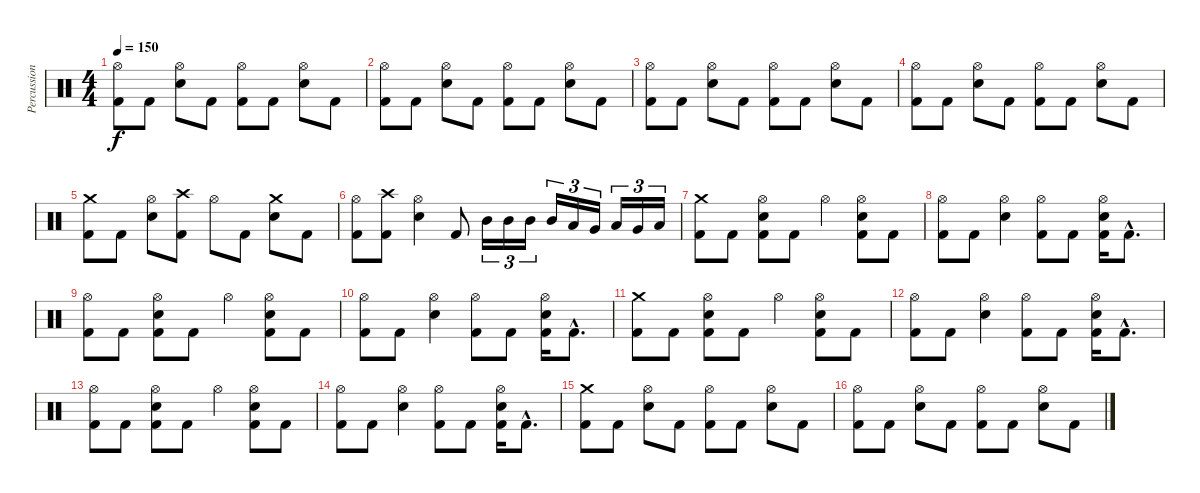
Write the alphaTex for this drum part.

\track ("Percussion" "Percussion") {instrument percussion}
\staff {score}
\articulation defaults
\ts (4 4)
\tempo 150
\clef neutral
\ks aminor
("Hi-Hat (open)" "Kick (hit) 2").8{dy f} "Kick (hit) 2".8 ("Hi-Hat (open)" "Electric Snare (hit)").8 "Kick (hit) 2".8 ("Hi-Hat (open)" "Kick (hit) 2").8 "Kick (hit) 2".8 ("Hi-Hat (open)" "Electric Snare (hit)").8 "Kick (hit) 2".8 |
("Hi-Hat (open)" "Kick (hit) 2").8 "Kick (hit) 2".8 ("Hi-Hat (open)" "Electric Snare (hit)").8 "Kick (hit) 2".8 ("Hi-Hat (open)" "Kick (hit) 2").8 "Kick (hit) 2".8 ("Hi-Hat (open)" "Electric Snare (hit)").8 "Kick (hit) 2".8 |
("Hi-Hat (open)" "Kick (hit) 2").8 "Kick (hit) 2".8 ("Hi-Hat (open)" "Electric Snare (hit)").8 "Kick (hit) 2".8 ("Hi-Hat (open)" "Kick (hit) 2").8 "Kick (hit) 2".8 ("Hi-Hat (open)" "Electric Snare (hit)").8 "Kick (hit) 2".8 |
("Hi-Hat (open)" "Kick (hit) 2").8 "Kick (hit) 2".8 ("Hi-Hat (open)" "Electric Snare (hit)").8 "Kick (hit) 2".8 ("Hi-Hat (open)" "Kick (hit) 2").8 "Kick (hit) 2".8 ("Hi-Hat (open)" "Electric Snare (hit)").8 "Kick (hit) 2".8 |
("Crash medium (hit)" "Kick (hit) 2").8 "Kick (hit) 2".8 ("Hi-Hat (open)" "Electric Snare (hit)").8 ("Crash high (hit)" "Kick (hit) 2").8 "Hi-Hat (open)".8 "Kick (hit) 2".8 ("Crash medium (hit)" "Electric Snare (hit)").8 "Kick (hit) 2".8 |
("Hi-Hat (open)" "Kick (hit) 2").8 ("Crash high (hit)" "Kick (hit) 2").8 ("Hi-Hat (open)" "Electric Snare (hit)").4 "Kick (hit) 2".8 "Mid Tom (hit)".16{tu (3 2)} "Mid Tom (hit)".16{tu (3 2)} "Mid Tom (hit)".16{tu (3 2)} "Mid Tom (hit)".16{tu (3 2)} "Low Tom (hit)".16{tu (3 2)} "Very Low Tom (hit)".16{tu (3 2)} "Low Tom (hit)".16{tu (3 2)} "Very Low Tom (hit)".16{tu (3 2)} "Low Floor Tom (hit)".16{tu (3 2)} |
("Crash medium (hit)" "Kick (hit) 2").8 "Kick (hit) 2".8 ("Hi-Hat (open)" "Electric Snare (hit)" "Kick (hit) 2").8 "Kick (hit) 2".8 "Hi-Hat (open)".4 ("Hi-Hat (open)" "Electric Snare (hit)" "Kick (hit) 2").8 "Kick (hit) 2".8 |
("Hi-Hat (open)" "Kick (hit) 2").8 "Kick (hit) 2".8 ("Hi-Hat (open)" "Electric Snare (hit)").4 ("Hi-Hat (open)" "Kick (hit) 2").8 "Kick (hit) 2".8 ("Hi-Hat (open)" "Electric Snare (hit)" "Kick (hit) 2").16 "Kick (hit) 2"{hac}.8{d} |
("Hi-Hat (open)" "Kick (hit) 2").8 "Kick (hit) 2".8 ("Hi-Hat (open)" "Electric Snare (hit)" "Kick (hit) 2").8 "Kick (hit) 2".8 "Hi-Hat (open)".4 ("Hi-Hat (open)" "Electric Snare (hit)" "Kick (hit) 2").8 "Kick (hit) 2".8 |
("Hi-Hat (open)" "Kick (hit) 2").8 "Kick (hit) 2".8 ("Hi-Hat (open)" "Electric Snare (hit)").4 ("Hi-Hat (open)" "Kick (hit) 2").8 "Kick (hit) 2".8 ("Hi-Hat (open)" "Electric Snare (hit)" "Kick (hit) 2").16 "Kick (hit) 2"{hac}.8{d} |
("Crash medium (hit)" "Kick (hit) 2").8 "Kick (hit) 2".8 ("Hi-Hat (open)" "Electric Snare (hit)" "Kick (hit) 2").8 "Kick (hit) 2".8 "Hi-Hat (open)".4 ("Hi-Hat (open)" "Electric Snare (hit)" "Kick (hit) 2").8 "Kick (hit) 2".8 |
("Hi-Hat (open)" "Kick (hit) 2").8 "Kick (hit) 2".8 ("Hi-Hat (open)" "Electric Snare (hit)").4 ("Hi-Hat (open)" "Kick (hit) 2").8 "Kick (hit) 2".8 ("Hi-Hat (open)" "Electric Snare (hit)" "Kick (hit) 2").16 "Kick (hit) 2"{hac}.8{d} |
("Hi-Hat (open)" "Kick (hit) 2").8 "Kick (hit) 2".8 ("Hi-Hat (open)" "Electric Snare (hit)" "Kick (hit) 2").8 "Kick (hit) 2".8 "Hi-Hat (open)".4 ("Hi-Hat (open)" "Electric Snare (hit)" "Kick (hit) 2").8 "Kick (hit) 2".8 |
("Hi-Hat (open)" "Kick (hit) 2").8 "Kick (hit) 2".8 ("Hi-Hat (open)" "Electric Snare (hit)").4 ("Hi-Hat (open)" "Kick (hit) 2").8 "Kick (hit) 2".8 ("Hi-Hat (open)" "Electric Snare (hit)" "Kick (hit) 2").16 "Kick (hit) 2"{hac}.8{d} |
("Crash medium (hit)" "Kick (hit) 2").8 "Kick (hit) 2".8 ("Hi-Hat (open)" "Electric Snare (hit)").8 "Kick (hit) 2".8 ("Hi-Hat (open)" "Kick (hit) 2").8 "Kick (hit) 2".8 ("Hi-Hat (open)" "Electric Snare (hit)").8 "Kick (hit) 2".8 |
("Hi-Hat (open)" "Kick (hit) 2").8 "Kick (hit) 2".8 ("Hi-Hat (open)" "Electric Snare (hit)").8 "Kick (hit) 2".8 ("Hi-Hat (open)" "Kick (hit) 2").8 "Kick (hit) 2".8 ("Hi-Hat (open)" "Electric Snare (hit)").8 "Kick (hit) 2".8
